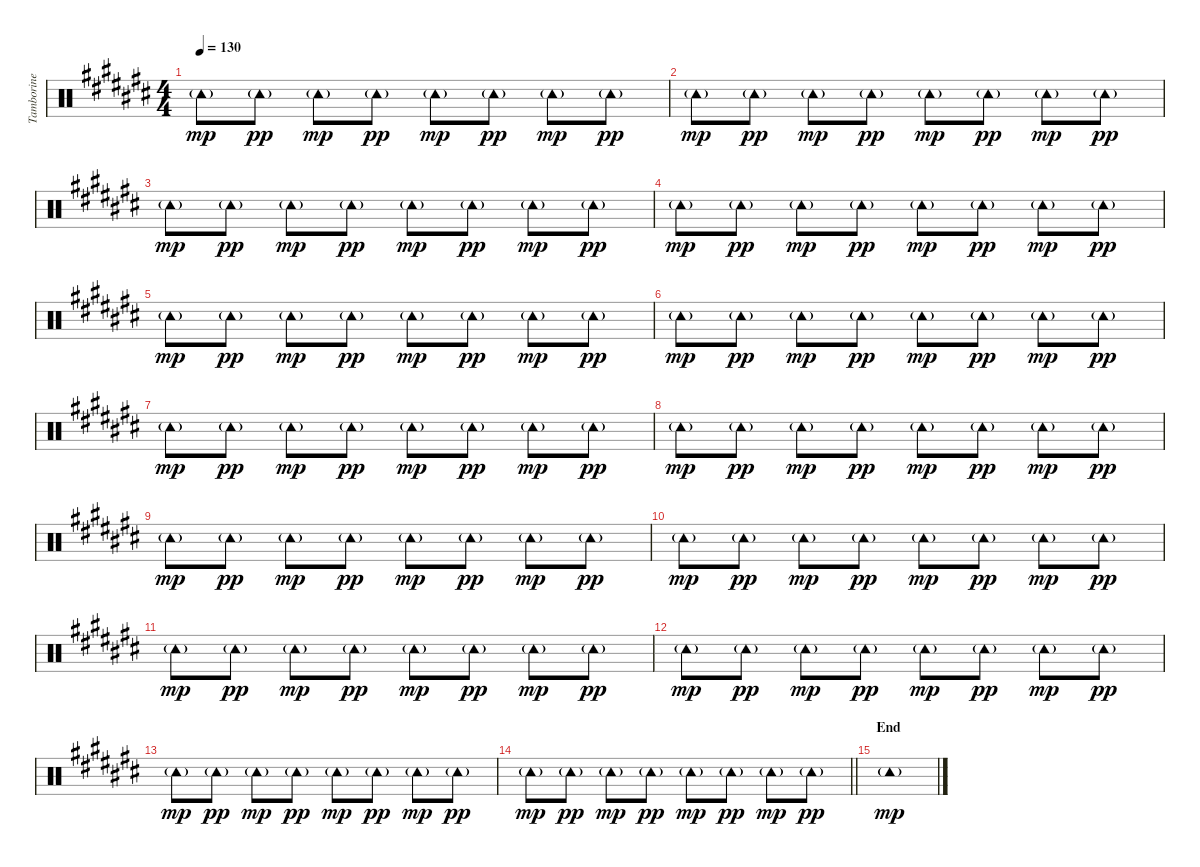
\track ("Tamborine" "Tamborine") {instrument percussion}
\staff {score}
\articulation defaults
\ts (4 4)
\tempo 130
\clef neutral
\ks c# "Tambourine (hit)"{g}.8{dy mp} "Tambourine (hit)"{g}.8{dy pp} "Tambourine (hit)"{g}.8{dy mp} "Tambourine (hit)"{g}.8{dy pp} "Tambourine (hit)"{g}.8{dy mp} "Tambourine (hit)"{g}.8{dy pp} "Tambourine (hit)"{g}.8{dy mp} "Tambourine (hit)"{g}.8{dy pp}
|
"Tambourine (hit)"{g}.8{dy mp} "Tambourine (hit)"{g}.8{dy pp} "Tambourine (hit)"{g}.8{dy mp} "Tambourine (hit)"{g}.8{dy pp} "Tambourine (hit)"{g}.8{dy mp} "Tambourine (hit)"{g}.8{dy pp} "Tambourine (hit)"{g}.8{dy mp} "Tambourine (hit)"{g}.8{dy pp} |
"Tambourine (hit)"{g}.8{dy mp} "Tambourine (hit)"{g}.8{dy pp} "Tambourine (hit)"{g}.8{dy mp} "Tambourine (hit)"{g}.8{dy pp} "Tambourine (hit)"{g}.8{dy mp} "Tambourine (hit)"{g}.8{dy pp} "Tambourine (hit)"{g}.8{dy mp} "Tambourine (hit)"{g}.8{dy pp} |
"Tambourine (hit)"{g}.8{dy mp} "Tambourine (hit)"{g}.8{dy pp} "Tambourine (hit)"{g}.8{dy mp} "Tambourine (hit)"{g}.8{dy pp} "Tambourine (hit)"{g}.8{dy mp} "Tambourine (hit)"{g}.8{dy pp} "Tambourine (hit)"{g}.8{dy mp} "Tambourine (hit)"{g}.8{dy pp} |
"Tambourine (hit)"{g}.8{dy mp} "Tambourine (hit)"{g}.8{dy pp} "Tambourine (hit)"{g}.8{dy mp} "Tambourine (hit)"{g}.8{dy pp} "Tambourine (hit)"{g}.8{dy mp} "Tambourine (hit)"{g}.8{dy pp} "Tambourine (hit)"{g}.8{dy mp} "Tambourine (hit)"{g}.8{dy pp} |
"Tambourine (hit)"{g}.8{dy mp} "Tambourine (hit)"{g}.8{dy pp} "Tambourine (hit)"{g}.8{dy mp} "Tambourine (hit)"{g}.8{dy pp} "Tambourine (hit)"{g}.8{dy mp} "Tambourine (hit)"{g}.8{dy pp} "Tambourine (hit)"{g}.8{dy mp} "Tambourine (hit)"{g}.8{dy pp} |
"Tambourine (hit)"{g}.8{dy mp} "Tambourine (hit)"{g}.8{dy pp} "Tambourine (hit)"{g}.8{dy mp} "Tambourine (hit)"{g}.8{dy pp} "Tambourine (hit)"{g}.8{dy mp} "Tambourine (hit)"{g}.8{dy pp} "Tambourine (hit)"{g}.8{dy mp} "Tambourine (hit)"{g}.8{dy pp} |
"Tambourine (hit)"{g}.8{dy mp} "Tambourine (hit)"{g}.8{dy pp} "Tambourine (hit)"{g}.8{dy mp} "Tambourine (hit)"{g}.8{dy pp} "Tambourine (hit)"{g}.8{dy mp} "Tambourine (hit)"{g}.8{dy pp} "Tambourine (hit)"{g}.8{dy mp} "Tambourine (hit)"{g}.8{dy pp} |
"Tambourine (hit)"{g}.8{dy mp} "Tambourine (hit)"{g}.8{dy pp} "Tambourine (hit)"{g}.8{dy mp} "Tambourine (hit)"{g}.8{dy pp} "Tambourine (hit)"{g}.8{dy mp} "Tambourine (hit)"{g}.8{dy pp} "Tambourine (hit)"{g}.8{dy mp} "Tambourine (hit)"{g}.8{dy pp} |
"Tambourine (hit)"{g}.8{dy mp} "Tambourine (hit)"{g}.8{dy pp} "Tambourine (hit)"{g}.8{dy mp} "Tambourine (hit)"{g}.8{dy pp} "Tambourine (hit)"{g}.8{dy mp} "Tambourine (hit)"{g}.8{dy pp} "Tambourine (hit)"{g}.8{dy mp} "Tambourine (hit)"{g}.8{dy pp} |
"Tambourine (hit)"{g}.8{dy mp} "Tambourine (hit)"{g}.8{dy pp} "Tambourine (hit)"{g}.8{dy mp} "Tambourine (hit)"{g}.8{dy pp} "Tambourine (hit)"{g}.8{dy mp} "Tambourine (hit)"{g}.8{dy pp} "Tambourine (hit)"{g}.8{dy mp} "Tambourine (hit)"{g}.8{dy pp} |
"Tambourine (hit)"{g}.8{dy mp} "Tambourine (hit)"{g}.8{dy pp} "Tambourine (hit)"{g}.8{dy mp} "Tambourine (hit)"{g}.8{dy pp} "Tambourine (hit)"{g}.8{dy mp} "Tambourine (hit)"{g}.8{dy pp} "Tambourine (hit)"{g}.8{dy mp} "Tambourine (hit)"{g}.8{dy pp} |
"Tambourine (hit)"{g}.8{dy mp} "Tambourine (hit)"{g}.8{dy pp} "Tambourine (hit)"{g}.8{dy mp} "Tambourine (hit)"{g}.8{dy pp} "Tambourine (hit)"{g}.8{dy mp} "Tambourine (hit)"{g}.8{dy pp} "Tambourine (hit)"{g}.8{dy mp} "Tambourine (hit)"{g}.8{dy pp} |
\barLineRight lightlight "Tambourine (hit)"{g}.8{dy mp} "Tambourine (hit)"{g}.8{dy pp} "Tambourine (hit)"{g}.8{dy mp} "Tambourine (hit)"{g}.8{dy pp} "Tambourine (hit)"{g}.8{dy mp} "Tambourine (hit)"{g}.8{dy pp} "Tambourine (hit)"{g}.8{dy mp} "Tambourine (hit)"{g}.8{dy pp}
|
\section ("" "End")
"Tambourine (hit)"{g}.1{dy mp}
